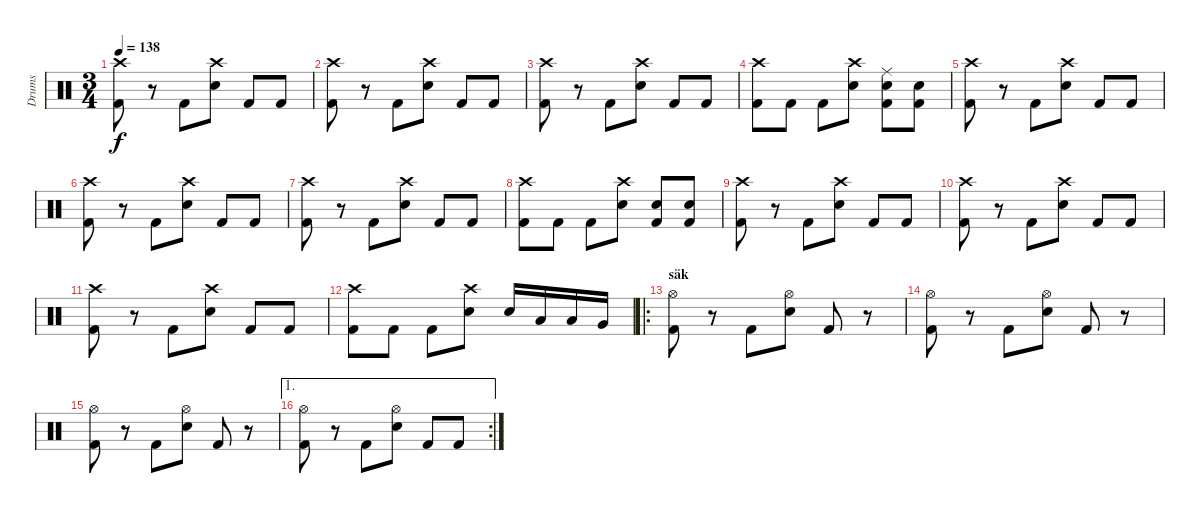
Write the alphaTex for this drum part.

\track ("Drums" "Drums") {instrument percussion}
\staff {score}
\articulation defaults
\ts (3 4)
\tempo 138
\clef neutral
\ks c
("Crash high (hit)" "Kick (hit) 2").8{dy f} r.8 "Kick (hit) 2".8 ("Crash high (hit)" "Snare (hit) 2").8 "Kick (hit) 2".8 "Kick (hit) 2".8 |
("Crash high (hit)" "Kick (hit) 2").8 r.8 "Kick (hit) 2".8 ("Crash high (hit)" "Snare (hit) 2").8 "Kick (hit) 2".8 "Kick (hit) 2".8 |
("Crash high (hit)" "Kick (hit) 2").8 r.8 "Kick (hit) 2".8 ("Crash high (hit)" "Snare (hit) 2").8 "Kick (hit) 2".8 "Kick (hit) 2".8 |
("Crash high (hit)" "Kick (hit) 2").8 "Kick (hit) 2".8 "Kick (hit) 2".8 ("Crash high (hit)" "Snare (hit) 2").8 ("Ride (middle)" "Snare (hit) 2" "Kick (hit) 2").8 ("Snare (hit) 2" "Kick (hit) 2").8 |
("Crash high (hit)" "Kick (hit) 2").8 r.8 "Kick (hit) 2".8 ("Crash high (hit)" "Snare (hit) 2").8 "Kick (hit) 2".8 "Kick (hit) 2".8 |
("Crash high (hit)" "Kick (hit) 2").8 r.8 "Kick (hit) 2".8 ("Crash high (hit)" "Snare (hit) 2").8 "Kick (hit) 2".8 "Kick (hit) 2".8 |
("Crash high (hit)" "Kick (hit) 2").8 r.8 "Kick (hit) 2".8 ("Crash high (hit)" "Snare (hit) 2").8 "Kick (hit) 2".8 "Kick (hit) 2".8 |
("Crash high (hit)" "Kick (hit) 2").8 "Kick (hit) 2".8 "Kick (hit) 2".8 ("Crash high (hit)" "Snare (hit) 2").8 ("Snare (hit) 2" "Kick (hit) 2").8 ("Snare (hit) 2" "Kick (hit) 2").8 |
("Crash high (hit)" "Kick (hit) 2").8 r.8 "Kick (hit) 2".8 ("Crash high (hit)" "Snare (hit) 2").8 "Kick (hit) 2".8 "Kick (hit) 2".8 |
("Crash high (hit)" "Kick (hit) 2").8 r.8 "Kick (hit) 2".8 ("Crash high (hit)" "Snare (hit) 2").8 "Kick (hit) 2".8 "Kick (hit) 2".8 |
("Crash high (hit)" "Kick (hit) 2").8 r.8 "Kick (hit) 2".8 ("Crash high (hit)" "Snare (hit) 2").8 "Kick (hit) 2".8 "Kick (hit) 2".8 |
("Crash high (hit)" "Kick (hit) 2").8 "Kick (hit) 2".8 "Kick (hit) 2".8 ("Crash high (hit)" "Snare (hit) 2").8 "Snare (hit) 2".16 "Low Tom (hit)".16 "Low Tom (hit)".16 "Very Low Tom (hit)".16 |
\ro
\section ("" "säk")
("Hi-Hat (open)" "Kick (hit) 2").8 r.8 "Kick (hit) 2".8 ("Hi-Hat (open)" "Snare (hit) 2").8 "Kick (hit) 2".8 r.8 |
("Hi-Hat (open)" "Kick (hit) 2").8 r.8 "Kick (hit) 2".8 ("Hi-Hat (open)" "Snare (hit) 2").8 "Kick (hit) 2".8 r.8 |
("Hi-Hat (open)" "Kick (hit) 2").8 r.8 "Kick (hit) 2".8 ("Hi-Hat (open)" "Snare (hit) 2").8 "Kick (hit) 2".8 r.8 |
\ae 1
\rc 2
("Hi-Hat (open)" "Kick (hit) 2").8 r.8 "Kick (hit) 2".8 ("Hi-Hat (open)" "Snare (hit) 2").8 "Kick (hit) 2".8 "Kick (hit) 2".8
